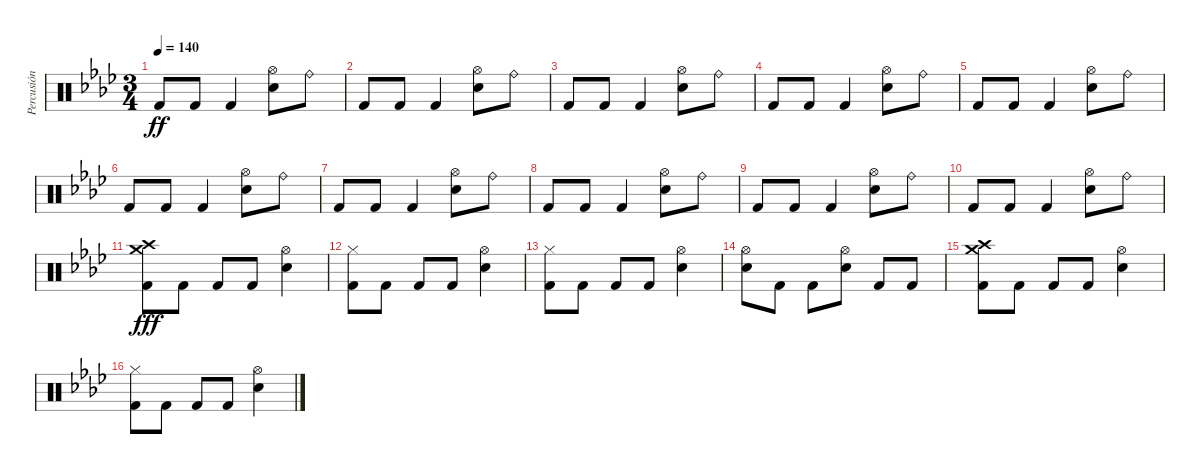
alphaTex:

\track ("Percusión" "Percusión") {instrument percussion}
\staff {score}
\articulation defaults
\ts (3 4)
\tempo 140
\clef neutral
\ks fminor "Kick (hit) 2".8{dy ff} "Kick (hit) 2".8 "Kick (hit) 2".4
("Hi-Hat (open)" "Snare (hit) 2").8 "Ride (bell)".8 |
"Kick (hit) 2".8 "Kick (hit) 2".8 "Kick (hit) 2".4 ("Hi-Hat (open)" "Snare (hit) 2").8 "Ride (bell)".8 |
"Kick (hit) 2".8 "Kick (hit) 2".8 "Kick (hit) 2".4 ("Hi-Hat (open)" "Snare (hit) 2").8 "Ride (bell)".8 |
"Kick (hit) 2".8 "Kick (hit) 2".8 "Kick (hit) 2".4 ("Hi-Hat (open)" "Snare (hit) 2").8 "Ride (bell)".8 |
"Kick (hit) 2".8 "Kick (hit) 2".8 "Kick (hit) 2".4 ("Hi-Hat (open)" "Snare (hit) 2").8 "Ride (bell)".8 |
"Kick (hit) 2".8 "Kick (hit) 2".8 "Kick (hit) 2".4 ("Hi-Hat (open)" "Snare (hit) 2").8 "Ride (bell)".8 |
"Kick (hit) 2".8 "Kick (hit) 2".8 "Kick (hit) 2".4 ("Hi-Hat (open)" "Snare (hit) 2").8 "Ride (bell)".8 |
"Kick (hit) 2".8 "Kick (hit) 2".8 "Kick (hit) 2".4 ("Hi-Hat (open)" "Snare (hit) 2").8 "Ride (bell)".8 |
"Kick (hit) 2".8 "Kick (hit) 2".8 "Kick (hit) 2".4 ("Hi-Hat (open)" "Snare (hit) 2").8 "Ride (bell)".8 |
"Kick (hit) 2".8 "Kick (hit) 2".8 "Kick (hit) 2".4 ("Hi-Hat (open)" "Snare (hit) 2").8 "Ride (bell)".8 |
("Crash high (hit)" "Crash medium (hit)" "Kick (hit) 2").8{dy fff} "Kick (hit) 2".8 "Kick (hit) 2".8 "Kick (hit) 2".8 ("Hi-Hat (open)" "Snare (hit) 2").4 |
("Hi-Hat (closed)" "Kick (hit) 2").8 "Kick (hit) 2".8 "Kick (hit) 2".8 "Kick (hit) 2".8 ("Hi-Hat (open)" "Snare (hit) 2").4 |
("Hi-Hat (closed)" "Kick (hit) 2").8 "Kick (hit) 2".8 "Kick (hit) 2".8 "Kick (hit) 2".8 ("Hi-Hat (open)" "Snare (hit) 2").4 |
("Hi-Hat (open)" "Snare (hit) 2").8 "Kick (hit) 2".8 "Kick (hit) 2".8 ("Hi-Hat (open)" "Snare (hit) 2").8 "Kick (hit) 2".8 "Kick (hit) 2".8 |
("Crash high (hit)" "Crash medium (hit)" "Kick (hit) 2").8 "Kick (hit) 2".8 "Kick (hit) 2".8 "Kick (hit) 2".8 ("Hi-Hat (open)" "Snare (hit) 2").4 |
("Hi-Hat (closed)" "Kick (hit) 2").8 "Kick (hit) 2".8 "Kick (hit) 2".8 "Kick (hit) 2".8 ("Hi-Hat (open)" "Snare (hit) 2").4
